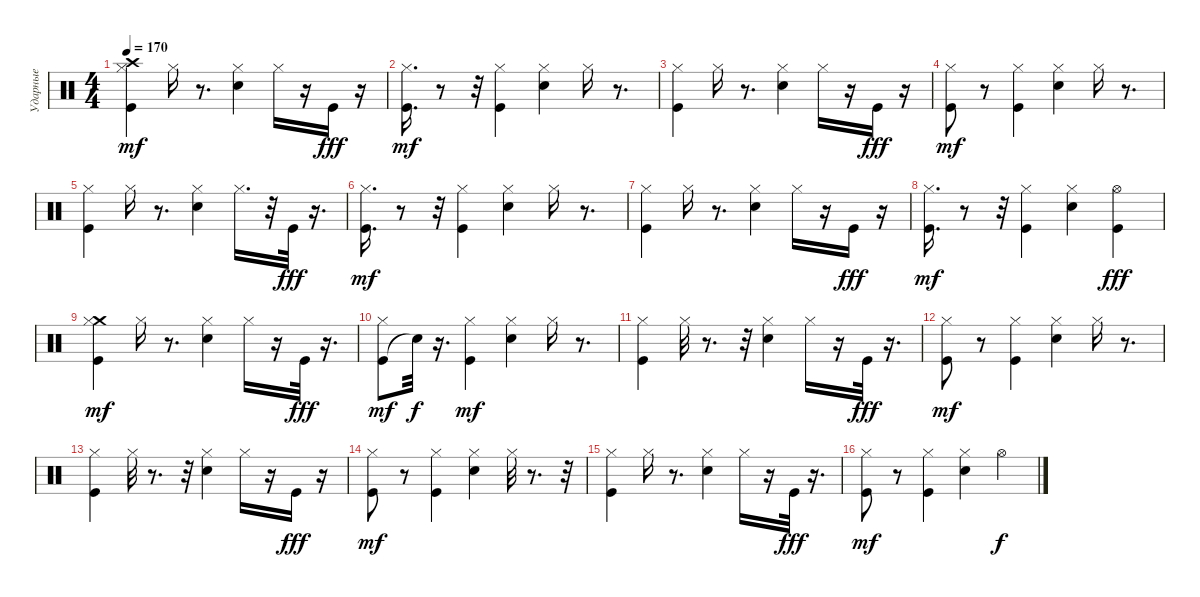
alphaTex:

\track ("Ударные" "Ударные") {instrument percussion}
\staff {score}
\articulation defaults
\ts (4 4)
\tempo 170
\clef neutral
\ks c
("Crash high (hit)" "Kick (hit)" "Hi-Hat (closed)").4{dy mf} "Hi-Hat (closed)".16 r.8{d} ("Snare (hit) 2" "Hi-Hat (closed)").4 "Hi-Hat (closed)".16 r.16 "Kick (hit)".16{dy fff} r.16 |
("Kick (hit)" "Hi-Hat (closed)").16{d dy mf} r.8 r.32 ("Kick (hit)" "Hi-Hat (closed)").4 ("Snare (hit) 2" "Hi-Hat (closed)").4 "Hi-Hat (closed)".16 r.8{d} |
("Kick (hit)" "Hi-Hat (closed)").4 "Hi-Hat (closed)".16 r.8{d} ("Snare (hit) 2" "Hi-Hat (closed)").4 "Hi-Hat (closed)".16 r.16 "Kick (hit)".16{dy fff} r.16 |
("Kick (hit)" "Hi-Hat (closed)").8{dy mf} r.8 ("Kick (hit)" "Hi-Hat (closed)").4 ("Snare (hit) 2" "Hi-Hat (closed)").4 "Hi-Hat (closed)".16 r.8{d} |
("Kick (hit)" "Hi-Hat (closed)").4 "Hi-Hat (closed)".16 r.8{d} ("Snare (hit) 2" "Hi-Hat (closed)").4 "Hi-Hat (closed)".16{d} r.32 "Kick (hit)".32{dy fff} r.16{d} |
("Kick (hit)" "Hi-Hat (closed)").16{d dy mf} r.8 r.32 ("Kick (hit)" "Hi-Hat (closed)").4 ("Snare (hit) 2" "Hi-Hat (closed)").4 "Hi-Hat (closed)".16 r.8{d} |
("Kick (hit)" "Hi-Hat (closed)").4 "Hi-Hat (closed)".16 r.8{d} ("Snare (hit) 2" "Hi-Hat (closed)").4 "Hi-Hat (closed)".16 r.16 "Kick (hit)".16{dy fff} r.16 |
("Kick (hit)" "Hi-Hat (closed)").16{d dy mf} r.8 r.32 ("Kick (hit)" "Hi-Hat (closed)").4 ("Snare (hit) 2" "Hi-Hat (closed)").4 ("Kick (hit)" "Hi-Hat (open)").4{dy fff} |
("Crash medium (hit)" "Kick (hit)" "Hi-Hat (closed)").4{dy mf} "Hi-Hat (closed)".16 r.8{d} ("Snare (hit) 2" "Hi-Hat (closed)").4 "Hi-Hat (closed)".16 r.16 "Kick (hit)".32{dy fff} r.16{d} |
("Kick (hit)" "Hi-Hat (closed)").8{dy mf} "Snare (hit)"{t}.32{dy f} r.16{d} ("Kick (hit)" "Hi-Hat (closed)").4{dy mf} ("Snare (hit) 2" "Hi-Hat (closed)").4 "Hi-Hat (closed)".16 r.8{d} |
("Kick (hit)" "Hi-Hat (closed)").4 "Hi-Hat (closed)".32 r.8{d} r.32 ("Snare (hit) 2" "Hi-Hat (closed)").4 "Hi-Hat (closed)".16 r.16 "Kick (hit)".32{dy fff} r.16{d} |
("Kick (hit)" "Hi-Hat (closed)").8{dy mf} r.8 ("Kick (hit)" "Hi-Hat (closed)").4 ("Snare (hit) 2" "Hi-Hat (closed)").4 "Hi-Hat (closed)".16 r.8{d} |
("Kick (hit)" "Hi-Hat (closed)").4 "Hi-Hat (closed)".32 r.8{d} r.32 ("Snare (hit) 2" "Hi-Hat (closed)").4 "Hi-Hat (closed)".16 r.16 "Kick (hit)".16{dy fff} r.16 |
("Kick (hit)" "Hi-Hat (closed)").8{dy mf} r.8 ("Kick (hit)" "Hi-Hat (closed)").4 ("Snare (hit) 2" "Hi-Hat (closed)").4 "Hi-Hat (closed)".32 r.8{d} r.32 |
("Kick (hit)" "Hi-Hat (closed)").4 "Hi-Hat (closed)".16 r.8{d} ("Snare (hit) 2" "Hi-Hat (closed)").4 "Hi-Hat (closed)".16 r.16 "Kick (hit)".32{dy fff} r.16{d} |
("Kick (hit)" "Hi-Hat (closed)").8{dy mf} r.8 ("Kick (hit)" "Hi-Hat (closed)").4 ("Snare (hit) 2" "Hi-Hat (closed)").4 "Hi-Hat (open)".4{dy f}
